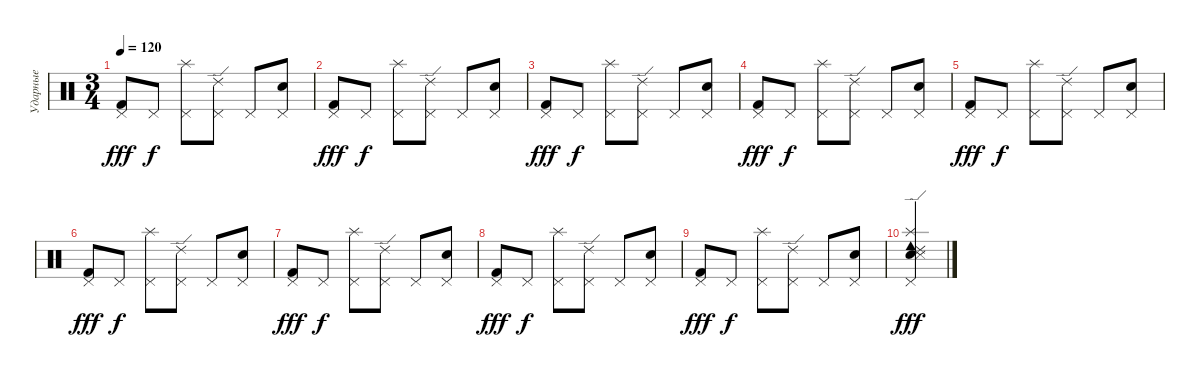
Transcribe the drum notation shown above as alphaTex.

\track ("Ударные" "Ударные") {instrument percussion}
\staff {score}
\articulation defaults
\ts (3 4)
\tempo 120
\clef neutral
\ks c
("Pedal Hi-Hat (hit)" "Kick (hit) 2").8{dy fff} "Pedal Hi-Hat (hit)".8{dy f} ("Pedal Hi-Hat (hit)" "Splash (hit)").8 ("Pedal Hi-Hat (hit)" "Ride (edge) 2").8 "Pedal Hi-Hat (hit)".8 ("Pedal Hi-Hat (hit)" "Snare (hit) 2").8 |
("Pedal Hi-Hat (hit)" "Kick (hit) 2").8{dy fff} "Pedal Hi-Hat (hit)".8{dy f} ("Pedal Hi-Hat (hit)" "Splash (hit)").8 ("Pedal Hi-Hat (hit)" "Ride (edge) 2").8 "Pedal Hi-Hat (hit)".8 ("Pedal Hi-Hat (hit)" "Snare (hit) 2").8 |
("Pedal Hi-Hat (hit)" "Kick (hit) 2").8{dy fff} "Pedal Hi-Hat (hit)".8{dy f} ("Pedal Hi-Hat (hit)" "Splash (hit)").8 ("Pedal Hi-Hat (hit)" "Ride (edge) 2").8 "Pedal Hi-Hat (hit)".8 ("Pedal Hi-Hat (hit)" "Snare (hit) 2").8 |
("Pedal Hi-Hat (hit)" "Kick (hit) 2").8{dy fff} "Pedal Hi-Hat (hit)".8{dy f} ("Pedal Hi-Hat (hit)" "Splash (hit)").8 ("Pedal Hi-Hat (hit)" "Ride (edge) 2").8 "Pedal Hi-Hat (hit)".8 ("Pedal Hi-Hat (hit)" "Snare (hit) 2").8 |
("Pedal Hi-Hat (hit)" "Kick (hit) 2").8{dy fff} "Pedal Hi-Hat (hit)".8{dy f} ("Pedal Hi-Hat (hit)" "Splash (hit)").8 ("Pedal Hi-Hat (hit)" "Ride (edge) 2").8 "Pedal Hi-Hat (hit)".8 ("Pedal Hi-Hat (hit)" "Snare (hit) 2").8 |
("Pedal Hi-Hat (hit)" "Kick (hit) 2").8{dy fff} "Pedal Hi-Hat (hit)".8{dy f} ("Pedal Hi-Hat (hit)" "Splash (hit)").8 ("Pedal Hi-Hat (hit)" "Ride (edge) 2").8 "Pedal Hi-Hat (hit)".8 ("Pedal Hi-Hat (hit)" "Snare (hit) 2").8 |
("Pedal Hi-Hat (hit)" "Kick (hit) 2").8{dy fff} "Pedal Hi-Hat (hit)".8{dy f} ("Pedal Hi-Hat (hit)" "Splash (hit)").8 ("Pedal Hi-Hat (hit)" "Ride (edge) 2").8 "Pedal Hi-Hat (hit)".8 ("Pedal Hi-Hat (hit)" "Snare (hit) 2").8 |
("Pedal Hi-Hat (hit)" "Kick (hit) 2").8{dy fff} "Pedal Hi-Hat (hit)".8{dy f} ("Pedal Hi-Hat (hit)" "Splash (hit)").8 ("Pedal Hi-Hat (hit)" "Ride (edge) 2").8 "Pedal Hi-Hat (hit)".8 ("Pedal Hi-Hat (hit)" "Snare (hit) 2").8 |
("Pedal Hi-Hat (hit)" "Kick (hit) 2").8{dy fff} "Pedal Hi-Hat (hit)".8{dy f} ("Pedal Hi-Hat (hit)" "Splash (hit)").8 ("Pedal Hi-Hat (hit)" "Ride (edge) 2").8 "Pedal Hi-Hat (hit)".8 ("Pedal Hi-Hat (hit)" "Snare (hit) 2").8 |
("Snare (hit) 2" "Pedal Hi-Hat (hit)" "Ride (edge) 2" "Splash (hit)" "Metronome (hit)" "Cowbell low (hit)").4{dy fff}
